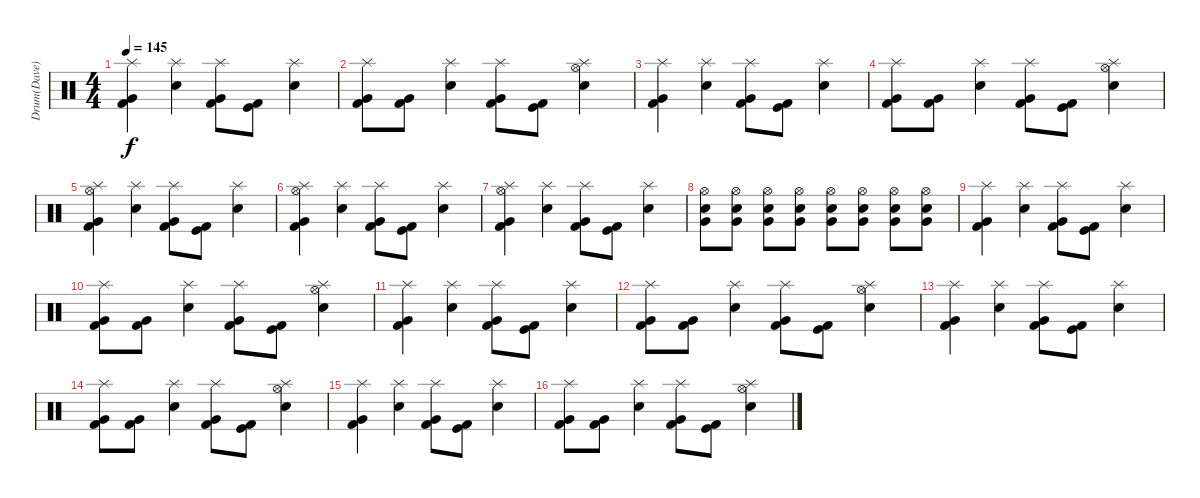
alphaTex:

\track ("Drum(Dave)" "Drum(Dave)") {instrument percussion}
\staff {score}
\articulation defaults
\ts (4 4)
\tempo 145
\clef neutral
\ks c
("Kick (hit) 2" "Very Low Tom (hit)" "Splash (hit)").4{dy f} ("Electric Snare (hit)" "Splash (hit)").4 ("Very Low Tom (hit)" "Splash (hit)" "Kick (hit) 2").8 ("Kick (hit)" "Kick (hit) 2").8 ("Splash (hit)" "Electric Snare (hit)").4 |
("Kick (hit) 2" "Very Low Tom (hit)" "Splash (hit)").8 ("Kick (hit) 2" "Very Low Tom (hit)").8 ("Electric Snare (hit)" "Splash (hit)").4 ("Very Low Tom (hit)" "Splash (hit)" "Kick (hit) 2").8 ("Kick (hit)" "Kick (hit) 2").8 ("Splash (hit)" "Electric Snare (hit)" "Hi-Hat (open)").4 |
("Kick (hit) 2" "Very Low Tom (hit)" "Splash (hit)").4 ("Electric Snare (hit)" "Splash (hit)").4 ("Very Low Tom (hit)" "Splash (hit)" "Kick (hit) 2").8 ("Kick (hit)" "Kick (hit) 2").8 ("Splash (hit)" "Electric Snare (hit)").4 |
("Kick (hit) 2" "Very Low Tom (hit)" "Splash (hit)").8 ("Kick (hit) 2" "Very Low Tom (hit)").8 ("Electric Snare (hit)" "Splash (hit)").4 ("Very Low Tom (hit)" "Splash (hit)" "Kick (hit) 2").8 ("Kick (hit)" "Kick (hit) 2").8 ("Splash (hit)" "Electric Snare (hit)" "Hi-Hat (open)").4 |
("Kick (hit) 2" "Very Low Tom (hit)" "Splash (hit)" "Hi-Hat (open)").4 ("Electric Snare (hit)" "Splash (hit)").4 ("Very Low Tom (hit)" "Splash (hit)" "Kick (hit) 2").8 ("Kick (hit)" "Kick (hit) 2").8 ("Splash (hit)" "Electric Snare (hit)").4 |
("Kick (hit) 2" "Very Low Tom (hit)" "Splash (hit)" "Hi-Hat (open)").4 ("Electric Snare (hit)" "Splash (hit)").4 ("Very Low Tom (hit)" "Splash (hit)" "Kick (hit) 2").8 ("Kick (hit)" "Kick (hit) 2").8 ("Splash (hit)" "Electric Snare (hit)").4 |
("Kick (hit) 2" "Very Low Tom (hit)" "Splash (hit)" "Hi-Hat (open)").4 ("Electric Snare (hit)" "Splash (hit)").4 ("Very Low Tom (hit)" "Splash (hit)" "Kick (hit) 2").8 ("Kick (hit)" "Kick (hit) 2").8 ("Splash (hit)" "Electric Snare (hit)").4 |
("Electric Snare (hit)" "Hi-Hat (open)" "Very Low Tom (hit)").8 ("Electric Snare (hit)" "Hi-Hat (open)" "Very Low Tom (hit)").8 ("Electric Snare (hit)" "Hi-Hat (open)" "Very Low Tom (hit)").8 ("Electric Snare (hit)" "Hi-Hat (open)" "Very Low Tom (hit)").8 ("Electric Snare (hit)" "Hi-Hat (open)" "Very Low Tom (hit)").8 ("Electric Snare (hit)" "Hi-Hat (open)" "Very Low Tom (hit)").8 ("Electric Snare (hit)" "Hi-Hat (open)" "Very Low Tom (hit)").8 ("Electric Snare (hit)" "Hi-Hat (open)" "Very Low Tom (hit)").8 |
("Kick (hit) 2" "Very Low Tom (hit)" "Splash (hit)").4 ("Electric Snare (hit)" "Splash (hit)").4 ("Very Low Tom (hit)" "Splash (hit)" "Kick (hit) 2").8 ("Kick (hit)" "Kick (hit) 2").8 ("Splash (hit)" "Electric Snare (hit)").4 |
("Kick (hit) 2" "Very Low Tom (hit)" "Splash (hit)").8 ("Kick (hit) 2" "Very Low Tom (hit)").8 ("Electric Snare (hit)" "Splash (hit)").4 ("Very Low Tom (hit)" "Splash (hit)" "Kick (hit) 2").8 ("Kick (hit)" "Kick (hit) 2").8 ("Splash (hit)" "Electric Snare (hit)" "Hi-Hat (open)").4 |
("Kick (hit) 2" "Very Low Tom (hit)" "Splash (hit)").4 ("Electric Snare (hit)" "Splash (hit)").4 ("Very Low Tom (hit)" "Splash (hit)" "Kick (hit) 2").8 ("Kick (hit)" "Kick (hit) 2").8 ("Splash (hit)" "Electric Snare (hit)").4 |
("Kick (hit) 2" "Very Low Tom (hit)" "Splash (hit)").8 ("Kick (hit) 2" "Very Low Tom (hit)").8 ("Electric Snare (hit)" "Splash (hit)").4 ("Very Low Tom (hit)" "Splash (hit)" "Kick (hit) 2").8 ("Kick (hit)" "Kick (hit) 2").8 ("Splash (hit)" "Electric Snare (hit)" "Hi-Hat (open)").4 |
("Kick (hit) 2" "Very Low Tom (hit)" "Splash (hit)").4 ("Electric Snare (hit)" "Splash (hit)").4 ("Very Low Tom (hit)" "Splash (hit)" "Kick (hit) 2").8 ("Kick (hit)" "Kick (hit) 2").8 ("Splash (hit)" "Electric Snare (hit)").4 |
("Kick (hit) 2" "Very Low Tom (hit)" "Splash (hit)").8 ("Kick (hit) 2" "Very Low Tom (hit)").8 ("Electric Snare (hit)" "Splash (hit)").4 ("Very Low Tom (hit)" "Splash (hit)" "Kick (hit) 2").8 ("Kick (hit)" "Kick (hit) 2").8 ("Splash (hit)" "Electric Snare (hit)" "Hi-Hat (open)").4 |
("Kick (hit) 2" "Very Low Tom (hit)" "Splash (hit)").4 ("Electric Snare (hit)" "Splash (hit)").4 ("Very Low Tom (hit)" "Splash (hit)" "Kick (hit) 2").8 ("Kick (hit)" "Kick (hit) 2").8 ("Splash (hit)" "Electric Snare (hit)").4 |
("Kick (hit) 2" "Very Low Tom (hit)" "Splash (hit)").8 ("Kick (hit) 2" "Very Low Tom (hit)").8 ("Electric Snare (hit)" "Splash (hit)").4 ("Very Low Tom (hit)" "Splash (hit)" "Kick (hit) 2").8 ("Kick (hit)" "Kick (hit) 2").8 ("Splash (hit)" "Electric Snare (hit)" "Hi-Hat (open)").4
